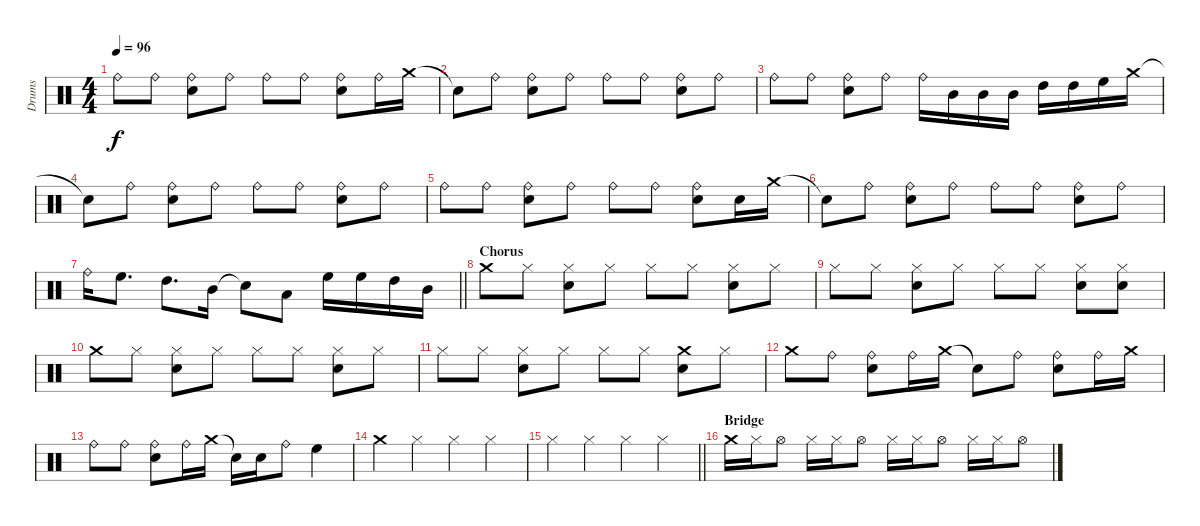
\track ("Drums" "Drums") {instrument percussion}
\staff {score}
\articulation defaults
\ts (4 4)
\tempo 96
\clef neutral
\ks c "Ride (bell)".8{dy f} "Ride (bell)".8
("Ride (bell)" "Electric Snare (hit)").8 "Ride (bell)".8 "Ride (bell)".8 "Ride (bell)".8 ("Ride (bell)" "Electric Snare (hit)").8 "Ride (bell)".16 "Crash medium (hit)".16 |
"Snare (hit)"{t}.8 "Ride (bell)".8 ("Ride (bell)" "Electric Snare (hit)").8 "Ride (bell)".8 "Ride (bell)".8 "Ride (bell)".8 ("Ride (bell)" "Electric Snare (hit)").8 "Ride (bell)".8 |
"Ride (bell)".8 "Ride (bell)".8 ("Ride (bell)" "Electric Snare (hit)").8 "Ride (bell)".8 "Ride (bell)".16 "Mid Tom (hit)".16 "Mid Tom (hit)".16 "Mid Tom (hit)".16 "High Tom (hit)".16 "High Tom (hit)".16 "High Floor Tom (hit)".16 "Crash medium (hit)".16 |
"Snare (hit)"{t}.8 "Ride (bell)".8 ("Ride (bell)" "Electric Snare (hit)").8 "Ride (bell)".8 "Ride (bell)".8 "Ride (bell)".8 ("Ride (bell)" "Electric Snare (hit)").8 "Ride (bell)".8 |
"Ride (bell)".8 "Ride (bell)".8 ("Ride (bell)" "Electric Snare (hit)").8 "Ride (bell)".8 "Ride (bell)".8 "Ride (bell)".8 ("Ride (bell)" "Electric Snare (hit)").8 "Electric Snare (hit)".16 "Crash medium (hit)".16 |
"Snare (hit)"{t}.8 "Ride (bell)".8 ("Ride (bell)" "Electric Snare (hit)").8 "Ride (bell)".8 "Ride (bell)".8 "Ride (bell)".8 ("Ride (bell)" "Electric Snare (hit)").8 "Ride (bell)".8 |
\barLineRight lightlight "Ride (bell)".16 "High Floor Tom (hit)".8{d} "High Tom (hit)".8{d} "Mid Tom (hit)".16 "Snare (hit)"{t}.8 "Low Tom (hit)".8 "High Floor Tom (hit)".16 "High Floor Tom (hit)".16 "High Tom (hit)".16 "Mid Tom (hit)".16
|
\section ("" "Chorus")
"Crash medium (hit)".8 "Hi-Hat (closed)".8 ("Hi-Hat (closed)" "Electric Snare (hit)").8 "Hi-Hat (closed)".8 "Hi-Hat (closed)".8 "Hi-Hat (closed)".8 ("Hi-Hat (closed)" "Electric Snare (hit)").8 "Hi-Hat (closed)".8 |
"Hi-Hat (closed)".8 "Hi-Hat (closed)".8 ("Hi-Hat (closed)" "Electric Snare (hit)").8 "Hi-Hat (closed)".8 "Hi-Hat (closed)".8 "Hi-Hat (closed)".8 ("Hi-Hat (closed)" "Electric Snare (hit)").8 ("Hi-Hat (closed)" "Electric Snare (hit)").8 |
"Crash medium (hit)".8 "Hi-Hat (closed)".8 ("Hi-Hat (closed)" "Electric Snare (hit)").8 "Hi-Hat (closed)".8 "Hi-Hat (closed)".8 "Hi-Hat (closed)".8 ("Hi-Hat (closed)" "Electric Snare (hit)").8 "Hi-Hat (closed)".8 |
"Hi-Hat (closed)".8 "Hi-Hat (closed)".8 ("Hi-Hat (closed)" "Electric Snare (hit)").8 "Hi-Hat (closed)".8 "Hi-Hat (closed)".8 "Hi-Hat (closed)".8 ("Crash medium (hit)" "Electric Snare (hit)").8 "Hi-Hat (closed)".8 |
"Crash medium (hit)".8 "Ride (bell)".8 ("Ride (bell)" "Electric Snare (hit)").8 "Ride (bell)".16 "Crash medium (hit)".16 "Snare (hit)"{t}.8 "Ride (bell)".8 ("Ride (bell)" "Electric Snare (hit)").8 "Ride (bell)".16 "Crash medium (hit)".16 |
"Ride (bell)".8 "Ride (bell)".8 ("Ride (bell)" "Electric Snare (hit)").8 "Ride (bell)".16 "Crash medium (hit)".16 "Snare (hit)"{t}.16 "Electric Snare (hit)".16 "Ride (bell)".8 "High Floor Tom (hit)".4 |
"Crash medium (hit)".4 "Hi-Hat (closed)".4 "Hi-Hat (closed)".4 "Hi-Hat (closed)".4 |
\barLineRight lightlight "Hi-Hat (closed)".4 "Hi-Hat (closed)".4 "Hi-Hat (closed)".4 "Hi-Hat (closed)".4
|
\section ("" "Bridge")
"Crash medium (hit)".16 "Hi-Hat (closed)".16 "Hi-Hat (open)".8 "Hi-Hat (closed)".16 "Hi-Hat (closed)".16 "Hi-Hat (open)".8 "Hi-Hat (closed)".16 "Hi-Hat (closed)".16 "Hi-Hat (open)".8 "Hi-Hat (closed)".16 "Hi-Hat (closed)".16 "Hi-Hat (open)".8
